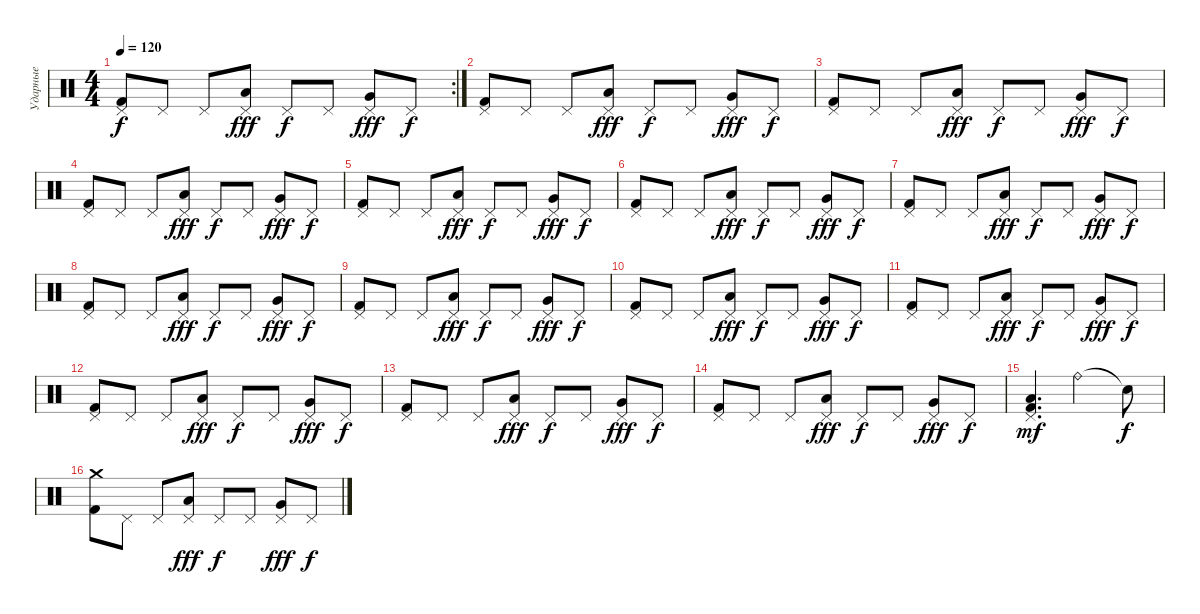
\track ("Ударные" "Ударные") {instrument percussion}
\staff {score}
\articulation defaults
\rc 2
\ts (4 4)
\tempo 120
\clef neutral
\ks c
("Pedal Hi-Hat (hit)" "Kick (hit) 2").8{dy f} "Pedal Hi-Hat (hit)".8 "Pedal Hi-Hat (hit)".8 ("Pedal Hi-Hat (hit)" "Low Floor Tom (hit)").8{dy fff} "Pedal Hi-Hat (hit)".8{dy f} "Pedal Hi-Hat (hit)".8 ("Pedal Hi-Hat (hit)" "Very Low Tom (hit)").8{dy fff} "Pedal Hi-Hat (hit)".8{dy f} |
("Pedal Hi-Hat (hit)" "Kick (hit) 2").8 "Pedal Hi-Hat (hit)".8 "Pedal Hi-Hat (hit)".8 ("Pedal Hi-Hat (hit)" "Low Floor Tom (hit)").8{dy fff} "Pedal Hi-Hat (hit)".8{dy f} "Pedal Hi-Hat (hit)".8 ("Pedal Hi-Hat (hit)" "Very Low Tom (hit)").8{dy fff} "Pedal Hi-Hat (hit)".8{dy f} |
("Pedal Hi-Hat (hit)" "Kick (hit) 2").8 "Pedal Hi-Hat (hit)".8 "Pedal Hi-Hat (hit)".8 ("Pedal Hi-Hat (hit)" "Low Floor Tom (hit)").8{dy fff} "Pedal Hi-Hat (hit)".8{dy f} "Pedal Hi-Hat (hit)".8 ("Pedal Hi-Hat (hit)" "Very Low Tom (hit)").8{dy fff} "Pedal Hi-Hat (hit)".8{dy f} |
("Pedal Hi-Hat (hit)" "Kick (hit) 2").8 "Pedal Hi-Hat (hit)".8 "Pedal Hi-Hat (hit)".8 ("Pedal Hi-Hat (hit)" "Low Floor Tom (hit)").8{dy fff} "Pedal Hi-Hat (hit)".8{dy f} "Pedal Hi-Hat (hit)".8 ("Pedal Hi-Hat (hit)" "Very Low Tom (hit)").8{dy fff} "Pedal Hi-Hat (hit)".8{dy f} |
("Pedal Hi-Hat (hit)" "Kick (hit) 2").8 "Pedal Hi-Hat (hit)".8 "Pedal Hi-Hat (hit)".8 ("Pedal Hi-Hat (hit)" "Low Floor Tom (hit)").8{dy fff} "Pedal Hi-Hat (hit)".8{dy f} "Pedal Hi-Hat (hit)".8 ("Pedal Hi-Hat (hit)" "Very Low Tom (hit)").8{dy fff} "Pedal Hi-Hat (hit)".8{dy f} |
("Pedal Hi-Hat (hit)" "Kick (hit) 2").8 "Pedal Hi-Hat (hit)".8 "Pedal Hi-Hat (hit)".8 ("Pedal Hi-Hat (hit)" "Low Floor Tom (hit)").8{dy fff} "Pedal Hi-Hat (hit)".8{dy f} "Pedal Hi-Hat (hit)".8 ("Pedal Hi-Hat (hit)" "Very Low Tom (hit)").8{dy fff} "Pedal Hi-Hat (hit)".8{dy f} |
("Pedal Hi-Hat (hit)" "Kick (hit) 2").8 "Pedal Hi-Hat (hit)".8 "Pedal Hi-Hat (hit)".8 ("Pedal Hi-Hat (hit)" "Low Floor Tom (hit)").8{dy fff} "Pedal Hi-Hat (hit)".8{dy f} "Pedal Hi-Hat (hit)".8 ("Pedal Hi-Hat (hit)" "Very Low Tom (hit)").8{dy fff} "Pedal Hi-Hat (hit)".8{dy f} |
("Pedal Hi-Hat (hit)" "Kick (hit) 2").8 "Pedal Hi-Hat (hit)".8 "Pedal Hi-Hat (hit)".8 ("Pedal Hi-Hat (hit)" "Low Floor Tom (hit)").8{dy fff} "Pedal Hi-Hat (hit)".8{dy f} "Pedal Hi-Hat (hit)".8 ("Pedal Hi-Hat (hit)" "Very Low Tom (hit)").8{dy fff} "Pedal Hi-Hat (hit)".8{dy f} |
("Pedal Hi-Hat (hit)" "Kick (hit) 2").8 "Pedal Hi-Hat (hit)".8 "Pedal Hi-Hat (hit)".8 ("Pedal Hi-Hat (hit)" "Low Floor Tom (hit)").8{dy fff} "Pedal Hi-Hat (hit)".8{dy f} "Pedal Hi-Hat (hit)".8 ("Pedal Hi-Hat (hit)" "Very Low Tom (hit)").8{dy fff} "Pedal Hi-Hat (hit)".8{dy f} |
("Pedal Hi-Hat (hit)" "Kick (hit) 2").8 "Pedal Hi-Hat (hit)".8 "Pedal Hi-Hat (hit)".8 ("Pedal Hi-Hat (hit)" "Low Floor Tom (hit)").8{dy fff} "Pedal Hi-Hat (hit)".8{dy f} "Pedal Hi-Hat (hit)".8 ("Pedal Hi-Hat (hit)" "Very Low Tom (hit)").8{dy fff} "Pedal Hi-Hat (hit)".8{dy f} |
("Pedal Hi-Hat (hit)" "Kick (hit) 2").8 "Pedal Hi-Hat (hit)".8 "Pedal Hi-Hat (hit)".8 ("Pedal Hi-Hat (hit)" "Low Floor Tom (hit)").8{dy fff} "Pedal Hi-Hat (hit)".8{dy f} "Pedal Hi-Hat (hit)".8 ("Pedal Hi-Hat (hit)" "Very Low Tom (hit)").8{dy fff} "Pedal Hi-Hat (hit)".8{dy f} |
("Pedal Hi-Hat (hit)" "Kick (hit) 2").8 "Pedal Hi-Hat (hit)".8 "Pedal Hi-Hat (hit)".8 ("Pedal Hi-Hat (hit)" "Low Floor Tom (hit)").8{dy fff} "Pedal Hi-Hat (hit)".8{dy f} "Pedal Hi-Hat (hit)".8 ("Pedal Hi-Hat (hit)" "Very Low Tom (hit)").8{dy fff} "Pedal Hi-Hat (hit)".8{dy f} |
("Pedal Hi-Hat (hit)" "Kick (hit) 2").8 "Pedal Hi-Hat (hit)".8 "Pedal Hi-Hat (hit)".8 ("Pedal Hi-Hat (hit)" "Low Floor Tom (hit)").8{dy fff} "Pedal Hi-Hat (hit)".8{dy f} "Pedal Hi-Hat (hit)".8 ("Pedal Hi-Hat (hit)" "Very Low Tom (hit)").8{dy fff} "Pedal Hi-Hat (hit)".8{dy f} |
("Pedal Hi-Hat (hit)" "Kick (hit) 2").8 "Pedal Hi-Hat (hit)".8 "Pedal Hi-Hat (hit)".8 ("Pedal Hi-Hat (hit)" "Low Floor Tom (hit)").8{dy fff} "Pedal Hi-Hat (hit)".8{dy f} "Pedal Hi-Hat (hit)".8 ("Pedal Hi-Hat (hit)" "Very Low Tom (hit)").8{dy fff} "Pedal Hi-Hat (hit)".8{dy f} |
("Pedal Hi-Hat (hit)" "Low Floor Tom (hit)" "Kick (hit) 2").4{d dy mf} "Ride (bell)".2 "Snare (hit)"{t}.8{dy f} |
("Crash medium (hit)" "Kick (hit) 2").8 "Pedal Hi-Hat (hit)".8 "Pedal Hi-Hat (hit)".8 ("Pedal Hi-Hat (hit)" "Low Floor Tom (hit)").8{dy fff} "Pedal Hi-Hat (hit)".8{dy f} "Pedal Hi-Hat (hit)".8 ("Pedal Hi-Hat (hit)" "Very Low Tom (hit)").8{dy fff} "Pedal Hi-Hat (hit)".8{dy f}
